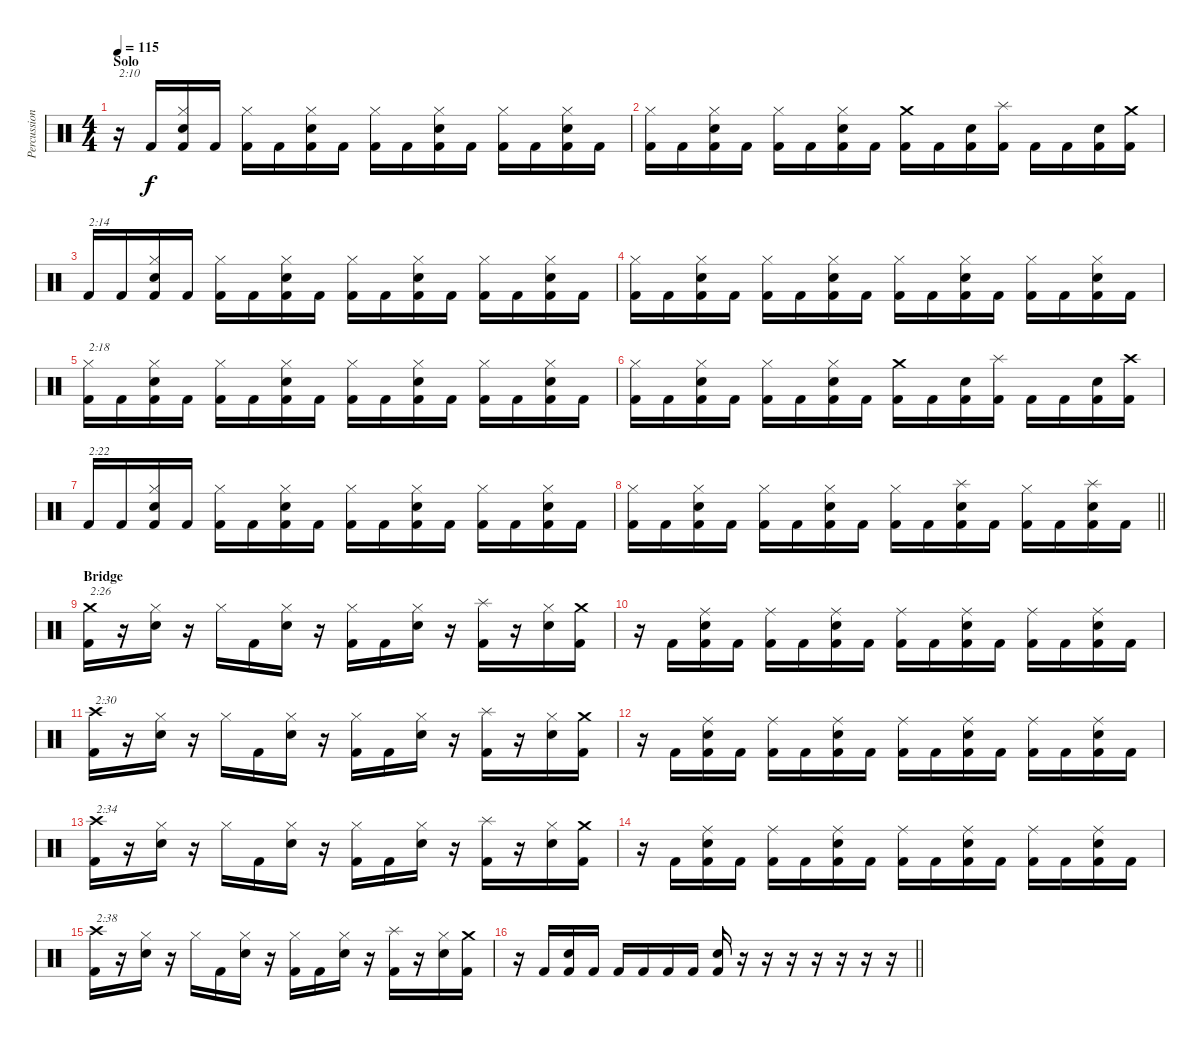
\track ("Percussion" "Percussion") {instrument percussion}
\staff {score}
\articulation defaults
\ts (4 4)
\section ("" "Solo")
\tempo 115
\clef neutral
\ks c
r.16{txt "2:10" dy f} "Kick (hit) 2".16 ("Hi-Hat (closed)" "Electric Snare (hit)" "Kick (hit) 2").16 "Kick (hit) 2".16 ("Hi-Hat (closed)" "Kick (hit) 2").16 "Kick (hit) 2".16 ("Hi-Hat (closed)" "Electric Snare (hit)" "Kick (hit) 2").16 "Kick (hit) 2".16 ("Hi-Hat (closed)" "Kick (hit) 2").16 "Kick (hit) 2".16 ("Hi-Hat (closed)" "Electric Snare (hit)" "Kick (hit) 2").16 "Kick (hit) 2".16 ("Hi-Hat (closed)" "Kick (hit) 2").16 "Kick (hit) 2".16 ("Hi-Hat (closed)" "Electric Snare (hit)" "Kick (hit) 2").16 "Kick (hit) 2".16 |
("Hi-Hat (closed)" "Kick (hit) 2").16 "Kick (hit) 2".16 ("Hi-Hat (closed)" "Electric Snare (hit)" "Kick (hit) 2").16 "Kick (hit) 2".16 ("Hi-Hat (closed)" "Kick (hit) 2").16 "Kick (hit) 2".16 ("Hi-Hat (closed)" "Electric Snare (hit)" "Kick (hit) 2").16 "Kick (hit) 2".16 ("Crash medium (hit)" "Kick (hit) 2").16 "Kick (hit) 2".16 ("Electric Snare (hit)" "Kick (hit) 2").16 ("Splash (hit)" "Kick (hit) 2").16 "Kick (hit) 2".16 "Kick (hit) 2".16 ("Electric Snare (hit)" "Kick (hit) 2").16 ("Crash medium (hit)" "Kick (hit) 2").16 |
"Kick (hit) 2".16{txt "2:14"} "Kick (hit) 2".16 ("Hi-Hat (closed)" "Electric Snare (hit)" "Kick (hit) 2").16 "Kick (hit) 2".16 ("Hi-Hat (closed)" "Kick (hit) 2").16 "Kick (hit) 2".16 ("Hi-Hat (closed)" "Electric Snare (hit)" "Kick (hit) 2").16 "Kick (hit) 2".16 ("Hi-Hat (closed)" "Kick (hit) 2").16 "Kick (hit) 2".16 ("Hi-Hat (closed)" "Electric Snare (hit)" "Kick (hit) 2").16 "Kick (hit) 2".16 ("Hi-Hat (closed)" "Kick (hit) 2").16 "Kick (hit) 2".16 ("Hi-Hat (closed)" "Electric Snare (hit)" "Kick (hit) 2").16 "Kick (hit) 2".16 |
("Hi-Hat (closed)" "Kick (hit) 2").16 "Kick (hit) 2".16 ("Hi-Hat (closed)" "Electric Snare (hit)" "Kick (hit) 2").16 "Kick (hit) 2".16 ("Hi-Hat (closed)" "Kick (hit) 2").16 "Kick (hit) 2".16 ("Hi-Hat (closed)" "Electric Snare (hit)" "Kick (hit) 2").16 "Kick (hit) 2".16 ("Hi-Hat (closed)" "Kick (hit) 2").16 "Kick (hit) 2".16 ("Hi-Hat (closed)" "Electric Snare (hit)" "Kick (hit) 2").16 "Kick (hit) 2".16 ("Hi-Hat (closed)" "Kick (hit) 2").16 "Kick (hit) 2".16 ("Hi-Hat (closed)" "Electric Snare (hit)" "Kick (hit) 2").16 "Kick (hit) 2".16 |
("Hi-Hat (closed)" "Kick (hit) 2").16{txt "2:18"} "Kick (hit) 2".16 ("Hi-Hat (closed)" "Electric Snare (hit)" "Kick (hit) 2").16 "Kick (hit) 2".16 ("Hi-Hat (closed)" "Kick (hit) 2").16 "Kick (hit) 2".16 ("Hi-Hat (closed)" "Electric Snare (hit)" "Kick (hit) 2").16 "Kick (hit) 2".16 ("Hi-Hat (closed)" "Kick (hit) 2").16 "Kick (hit) 2".16 ("Hi-Hat (closed)" "Electric Snare (hit)" "Kick (hit) 2").16 "Kick (hit) 2".16 ("Hi-Hat (closed)" "Kick (hit) 2").16 "Kick (hit) 2".16 ("Hi-Hat (closed)" "Electric Snare (hit)" "Kick (hit) 2").16 "Kick (hit) 2".16 |
("Hi-Hat (closed)" "Kick (hit) 2").16 "Kick (hit) 2".16 ("Hi-Hat (closed)" "Electric Snare (hit)" "Kick (hit) 2").16 "Kick (hit) 2".16 ("Hi-Hat (closed)" "Kick (hit) 2").16 "Kick (hit) 2".16 ("Hi-Hat (closed)" "Electric Snare (hit)" "Kick (hit) 2").16 "Kick (hit) 2".16 ("Crash medium (hit)" "Kick (hit) 2").16 "Kick (hit) 2".16 ("Electric Snare (hit)" "Kick (hit) 2").16 ("Splash (hit)" "Kick (hit) 2").16 "Kick (hit) 2".16 "Kick (hit) 2".16 ("Electric Snare (hit)" "Kick (hit) 2").16 ("Crash high (hit)" "Kick (hit) 2").16 |
"Kick (hit) 2".16{txt "2:22"} "Kick (hit) 2".16 ("Hi-Hat (closed)" "Electric Snare (hit)" "Kick (hit) 2").16 "Kick (hit) 2".16 ("Hi-Hat (closed)" "Kick (hit) 2").16 "Kick (hit) 2".16 ("Hi-Hat (closed)" "Electric Snare (hit)" "Kick (hit) 2").16 "Kick (hit) 2".16 ("Hi-Hat (closed)" "Kick (hit) 2").16 "Kick (hit) 2".16 ("Hi-Hat (closed)" "Electric Snare (hit)" "Kick (hit) 2").16 "Kick (hit) 2".16 ("Hi-Hat (closed)" "Kick (hit) 2").16 "Kick (hit) 2".16 ("Hi-Hat (closed)" "Electric Snare (hit)" "Kick (hit) 2").16 "Kick (hit) 2".16 |
\barLineRight lightlight
("Hi-Hat (closed)" "Kick (hit) 2").16 "Kick (hit) 2".16 ("Hi-Hat (closed)" "Electric Snare (hit)" "Kick (hit) 2").16 "Kick (hit) 2".16 ("Hi-Hat (closed)" "Kick (hit) 2").16 "Kick (hit) 2".16 ("Hi-Hat (closed)" "Electric Snare (hit)" "Kick (hit) 2").16 "Kick (hit) 2".16 ("Hi-Hat (closed)" "Kick (hit) 2").16 "Kick (hit) 2".16 ("Splash (hit)" "Electric Snare (hit)" "Kick (hit) 2").16 "Kick (hit) 2".16 ("Hi-Hat (closed)" "Kick (hit) 2").16 "Kick (hit) 2".16 ("Splash (hit)" "Electric Snare (hit)" "Kick (hit) 2").16 "Kick (hit) 2".16 |
\section ("" "Bridge")
("Crash medium (hit)" "Kick (hit) 2").16{txt "2:26"} r.16 ("Hi-Hat (closed)" "Electric Snare (hit)").16 r.16 "Hi-Hat (closed)".16 "Kick (hit) 2".16 ("Hi-Hat (closed)" "Electric Snare (hit)").16 r.16 ("Hi-Hat (closed)" "Kick (hit) 2").16 "Kick (hit) 2".16 ("Hi-Hat (closed)" "Electric Snare (hit)").16 r.16 ("Splash (hit)" "Kick (hit) 2").16 r.16 ("Hi-Hat (closed)" "Electric Snare (hit)").16 ("Crash medium (hit)" "Kick (hit) 2").16 |
r.16 "Kick (hit) 2".16 ("Ride (middle)" "Electric Snare (hit)" "Kick (hit) 2").16 "Kick (hit) 2".16 ("Ride (middle)" "Kick (hit) 2").16 "Kick (hit) 2".16 ("Ride (middle)" "Electric Snare (hit)" "Kick (hit) 2").16 "Kick (hit) 2".16 ("Ride (middle)" "Kick (hit) 2").16 "Kick (hit) 2".16 ("Ride (middle)" "Electric Snare (hit)" "Kick (hit) 2").16 "Kick (hit) 2".16 ("Ride (middle)" "Kick (hit) 2").16 "Kick (hit) 2".16 ("Ride (middle)" "Electric Snare (hit)" "Kick (hit) 2").16 "Kick (hit) 2".16 |
("Crash high (hit)" "Kick (hit) 2").16{txt "2:30"} r.16 ("Hi-Hat (closed)" "Electric Snare (hit)").16 r.16 "Hi-Hat (closed)".16 "Kick (hit) 2".16 ("Hi-Hat (closed)" "Electric Snare (hit)").16 r.16 ("Hi-Hat (closed)" "Kick (hit) 2").16 "Kick (hit) 2".16 ("Hi-Hat (closed)" "Electric Snare (hit)").16 r.16 ("Splash (hit)" "Kick (hit) 2").16 r.16 ("Hi-Hat (closed)" "Electric Snare (hit)").16 ("Crash medium (hit)" "Kick (hit) 2").16 |
r.16 "Kick (hit) 2".16 ("Ride (middle)" "Electric Snare (hit)" "Kick (hit) 2").16 "Kick (hit) 2".16 ("Ride (middle)" "Kick (hit) 2").16 "Kick (hit) 2".16 ("Ride (middle)" "Electric Snare (hit)" "Kick (hit) 2").16 "Kick (hit) 2".16 ("Ride (middle)" "Kick (hit) 2").16 "Kick (hit) 2".16 ("Ride (middle)" "Electric Snare (hit)" "Kick (hit) 2").16 "Kick (hit) 2".16 ("Ride (middle)" "Kick (hit) 2").16 "Kick (hit) 2".16 ("Ride (middle)" "Electric Snare (hit)" "Kick (hit) 2").16 "Kick (hit) 2".16 |
("Crash high (hit)" "Kick (hit) 2").16{txt "2:34"} r.16 ("Hi-Hat (closed)" "Electric Snare (hit)").16 r.16 "Hi-Hat (closed)".16 "Kick (hit) 2".16 ("Hi-Hat (closed)" "Electric Snare (hit)").16 r.16 ("Hi-Hat (closed)" "Kick (hit) 2").16 "Kick (hit) 2".16 ("Hi-Hat (closed)" "Electric Snare (hit)").16 r.16 ("Splash (hit)" "Kick (hit) 2").16 r.16 ("Hi-Hat (closed)" "Electric Snare (hit)").16 ("Crash medium (hit)" "Kick (hit) 2").16 |
r.16 "Kick (hit) 2".16 ("Ride (middle)" "Electric Snare (hit)" "Kick (hit) 2").16 "Kick (hit) 2".16 ("Ride (middle)" "Kick (hit) 2").16 "Kick (hit) 2".16 ("Ride (middle)" "Electric Snare (hit)" "Kick (hit) 2").16 "Kick (hit) 2".16 ("Ride (middle)" "Kick (hit) 2").16 "Kick (hit) 2".16 ("Ride (middle)" "Electric Snare (hit)" "Kick (hit) 2").16 "Kick (hit) 2".16 ("Ride (middle)" "Kick (hit) 2").16 "Kick (hit) 2".16 ("Ride (middle)" "Electric Snare (hit)" "Kick (hit) 2").16 "Kick (hit) 2".16 |
("Crash high (hit)" "Kick (hit) 2").16{txt "2:38"} r.16 ("Hi-Hat (closed)" "Electric Snare (hit)").16 r.16 "Hi-Hat (closed)".16 "Kick (hit) 2".16 ("Hi-Hat (closed)" "Electric Snare (hit)").16 r.16 ("Hi-Hat (closed)" "Kick (hit) 2").16 "Kick (hit) 2".16 ("Hi-Hat (closed)" "Electric Snare (hit)").16 r.16 ("Splash (hit)" "Kick (hit) 2").16 r.16 ("Hi-Hat (closed)" "Electric Snare (hit)").16 ("Crash medium (hit)" "Kick (hit) 2").16 |
\barLineRight lightlight
r.16 "Kick (hit) 2".16 ("Electric Snare (hit)" "Kick (hit) 2").16 "Kick (hit) 2".16 "Kick (hit) 2".16 "Kick (hit) 2".16 "Kick (hit) 2".16 "Kick (hit) 2".16 ("Electric Snare (hit)" "Kick (hit) 2").16 r.16 r.16 r.16 r.16 r.16 r.16 r.16
